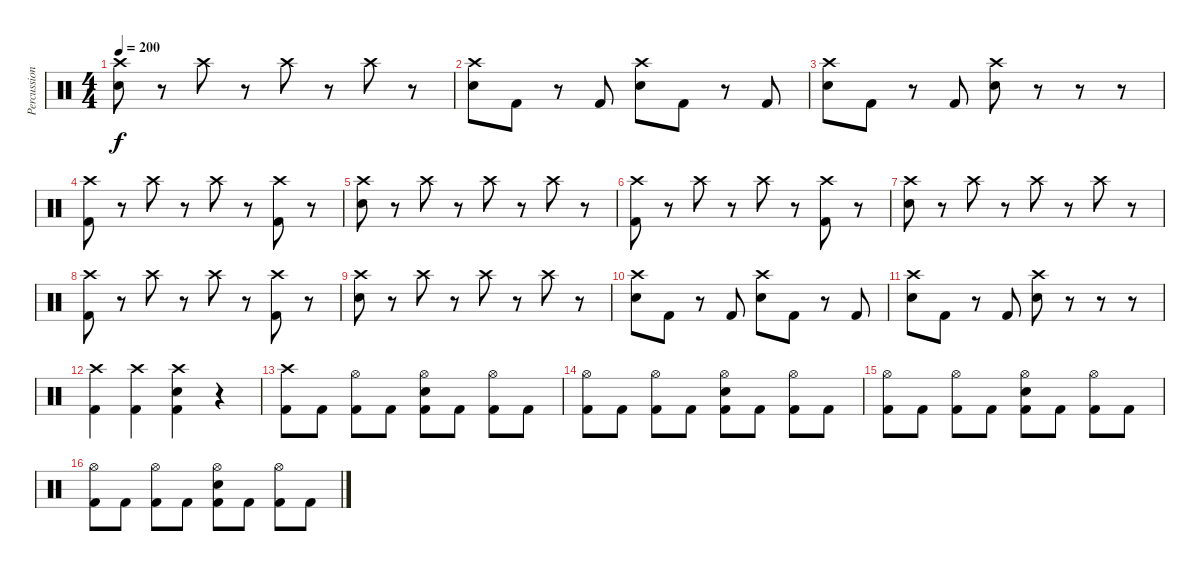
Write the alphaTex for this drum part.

\track ("Percussion" "Percussion") {instrument percussion}
\staff {score}
\articulation defaults
\ts (4 4)
\tempo 200
\clef neutral
\ks c
("Crash high (hit)" "Snare (hit) 2").8{dy f} r.8 "Crash high (hit)".8 r.8 "Crash high (hit)".8 r.8 "Crash high (hit)".8 r.8 |
("Crash high (hit)" "Snare (hit) 2").8 "Kick (hit) 2".8 r.8 "Kick (hit) 2".8 ("Crash high (hit)" "Snare (hit) 2").8 "Kick (hit) 2".8 r.8 "Kick (hit) 2".8 |
("Crash high (hit)" "Snare (hit) 2").8 "Kick (hit) 2".8 r.8 "Kick (hit) 2".8 ("Crash high (hit)" "Snare (hit) 2").8 r.8 r.8 r.8 |
("Crash high (hit)" "Kick (hit) 2").8 r.8 "Crash high (hit)".8 r.8 "Crash high (hit)".8 r.8 ("Crash high (hit)" "Kick (hit) 2").8 r.8 |
("Crash high (hit)" "Snare (hit) 2").8 r.8 "Crash high (hit)".8 r.8 "Crash high (hit)".8 r.8 "Crash high (hit)".8 r.8 |
("Crash high (hit)" "Kick (hit) 2").8 r.8 "Crash high (hit)".8 r.8 "Crash high (hit)".8 r.8 ("Crash high (hit)" "Kick (hit) 2").8 r.8 |
("Crash high (hit)" "Snare (hit) 2").8 r.8 "Crash high (hit)".8 r.8 "Crash high (hit)".8 r.8 "Crash high (hit)".8 r.8 |
("Crash high (hit)" "Kick (hit) 2").8 r.8 "Crash high (hit)".8 r.8 "Crash high (hit)".8 r.8 ("Crash high (hit)" "Kick (hit) 2").8 r.8 |
("Crash high (hit)" "Snare (hit) 2").8 r.8 "Crash high (hit)".8 r.8 "Crash high (hit)".8 r.8 "Crash high (hit)".8 r.8 |
("Crash high (hit)" "Snare (hit) 2").8 "Kick (hit) 2".8 r.8 "Kick (hit) 2".8 ("Crash high (hit)" "Snare (hit) 2").8 "Kick (hit) 2".8 r.8 "Kick (hit) 2".8 |
("Crash high (hit)" "Snare (hit) 2").8 "Kick (hit) 2".8 r.8 "Kick (hit) 2".8 ("Crash high (hit)" "Snare (hit) 2").8 r.8 r.8 r.8 |
("Crash high (hit)" "Kick (hit) 2").4 ("Crash high (hit)" "Kick (hit) 2").4 ("Crash high (hit)" "Snare (hit) 2" "Kick (hit) 2").4 r.4 |
("Crash high (hit)" "Kick (hit) 2").8 "Kick (hit) 2".8 ("Hi-Hat (open)" "Kick (hit) 2").8 "Kick (hit) 2".8 ("Hi-Hat (open)" "Snare (hit) 2" "Kick (hit) 2").8 "Kick (hit) 2".8 ("Hi-Hat (open)" "Kick (hit) 2").8 "Kick (hit) 2".8 |
("Hi-Hat (open)" "Kick (hit) 2").8 "Kick (hit) 2".8 ("Hi-Hat (open)" "Kick (hit) 2").8 "Kick (hit) 2".8 ("Hi-Hat (open)" "Snare (hit) 2" "Kick (hit) 2").8 "Kick (hit) 2".8 ("Hi-Hat (open)" "Kick (hit) 2").8 "Kick (hit) 2".8 |
("Hi-Hat (open)" "Kick (hit) 2").8 "Kick (hit) 2".8 ("Hi-Hat (open)" "Kick (hit) 2").8 "Kick (hit) 2".8 ("Hi-Hat (open)" "Snare (hit) 2" "Kick (hit) 2").8 "Kick (hit) 2".8 ("Hi-Hat (open)" "Kick (hit) 2").8 "Kick (hit) 2".8 |
("Hi-Hat (open)" "Kick (hit) 2").8 "Kick (hit) 2".8 ("Hi-Hat (open)" "Kick (hit) 2").8 "Kick (hit) 2".8 ("Hi-Hat (open)" "Snare (hit) 2" "Kick (hit) 2").8 "Kick (hit) 2".8 ("Hi-Hat (open)" "Kick (hit) 2").8 "Kick (hit) 2".8
